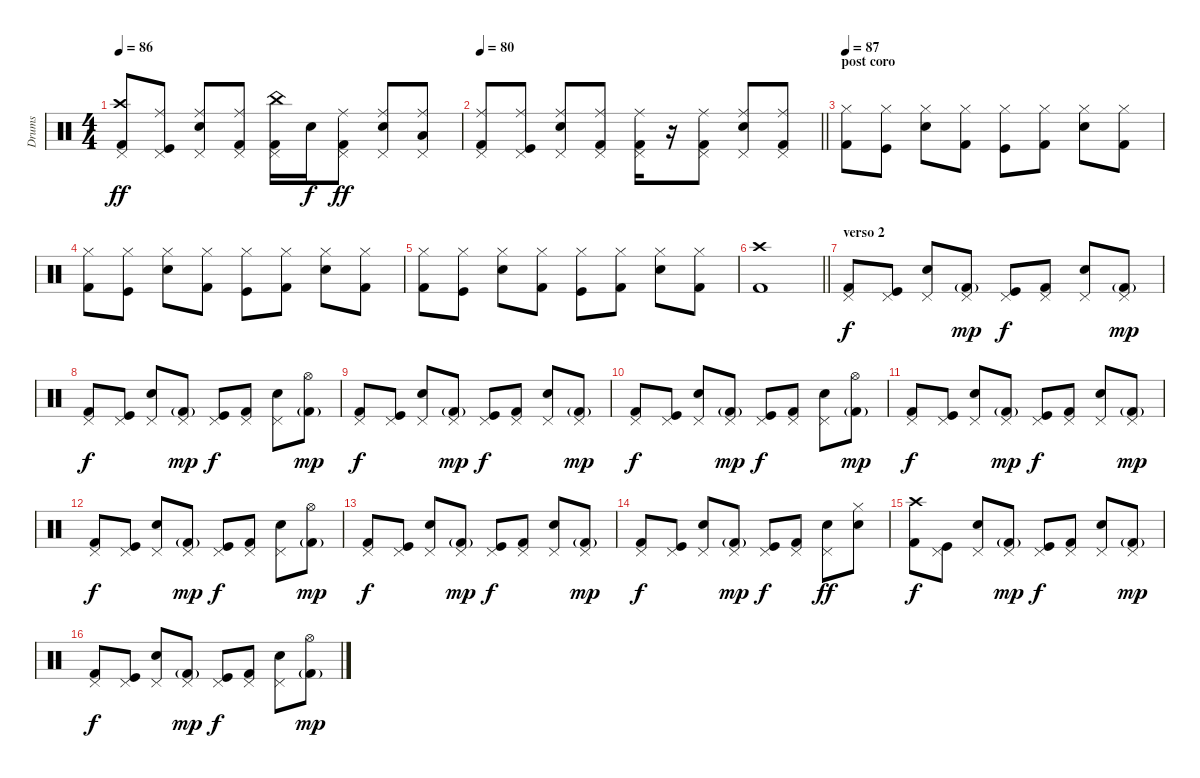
\track ("Drums" "Drums") {instrument percussion}
\staff {score}
\articulation defaults
\ts (4 4)
\tempo 86
\clef neutral
\ks c
("Kick (hit) 2" "Crash high (hit)" "Pedal Hi-Hat (hit)").8{dy ff} ("Kick (hit)" "Ride (middle)" "Pedal Hi-Hat (hit)").8 ("Snare (hit) 2" "Ride (middle)" "Pedal Hi-Hat (hit)").8 ("Kick (hit) 2" "Ride (middle)" "Pedal Hi-Hat (hit)").8 ("Kick (hit) 2" "China (hit)" "Pedal Hi-Hat (hit)").16 "Snare (hit) 2".16{dy f} ("Kick (hit) 2" "Ride (middle)" "Pedal Hi-Hat (hit)").8{dy ff} ("Snare (hit) 2" "Ride (middle)" "Pedal Hi-Hat (hit)").8 ("Low Tom (hit)" "Ride (middle)" "Pedal Hi-Hat (hit)").8 |
\tempo 80
\barLineRight lightlight
("Kick (hit) 2" "Ride (middle)" "Pedal Hi-Hat (hit)").8 ("Kick (hit)" "Ride (middle)" "Pedal Hi-Hat (hit)").8 ("Snare (hit) 2" "Ride (middle)" "Pedal Hi-Hat (hit)").8 ("Kick (hit) 2" "Ride (middle)" "Pedal Hi-Hat (hit)").8 ("Kick (hit) 2" "Ride (middle)" "Pedal Hi-Hat (hit)").16 r.16 ("Kick (hit) 2" "Ride (middle)" "Pedal Hi-Hat (hit)").8 ("Snare (hit) 2" "Ride (middle)" "Pedal Hi-Hat (hit)").8 ("Kick (hit) 2" "Ride (middle)" "Pedal Hi-Hat (hit)").8 |
\section ("" "post coro")
\tempo 87
("Kick (hit) 2" "Hi-Hat (closed)").8 ("Kick (hit)" "Hi-Hat (closed)").8 ("Snare (hit) 2" "Hi-Hat (closed)").8 ("Kick (hit) 2" "Hi-Hat (closed)").8 ("Kick (hit)" "Hi-Hat (closed)").8 ("Kick (hit) 2" "Hi-Hat (closed)").8 ("Snare (hit) 2" "Hi-Hat (closed)").8 ("Kick (hit) 2" "Hi-Hat (closed)").8 |
("Kick (hit) 2" "Hi-Hat (closed)").8 ("Kick (hit)" "Hi-Hat (closed)").8 ("Snare (hit) 2" "Hi-Hat (closed)").8 ("Kick (hit) 2" "Hi-Hat (closed)").8 ("Kick (hit)" "Hi-Hat (closed)").8 ("Kick (hit) 2" "Hi-Hat (closed)").8 ("Snare (hit) 2" "Hi-Hat (closed)").8 ("Kick (hit) 2" "Hi-Hat (closed)").8 |
("Kick (hit) 2" "Hi-Hat (closed)").8 ("Kick (hit)" "Hi-Hat (closed)").8 ("Snare (hit) 2" "Hi-Hat (closed)").8 ("Kick (hit) 2" "Hi-Hat (closed)").8 ("Kick (hit)" "Hi-Hat (closed)").8 ("Kick (hit) 2" "Hi-Hat (closed)").8 ("Snare (hit) 2" "Hi-Hat (closed)").8 ("Kick (hit) 2" "Hi-Hat (closed)").8 |
\barLineRight lightlight
("Kick (hit) 2" "Crash high (hit)").1 |
\section ("" "verso 2")
("Kick (hit) 2" "Pedal Hi-Hat (hit)").8{dy f} ("Kick (hit)" "Pedal Hi-Hat (hit)").8 ("Snare (hit) 2" "Pedal Hi-Hat (hit)").8 ("Kick (hit) 2"{g} "Pedal Hi-Hat (hit)").8{dy mp} ("Kick (hit)" "Pedal Hi-Hat (hit)").8{dy f} ("Kick (hit) 2" "Pedal Hi-Hat (hit)").8 ("Snare (hit) 2" "Pedal Hi-Hat (hit)").8 ("Kick (hit) 2"{g} "Pedal Hi-Hat (hit)").8{dy mp} |
("Kick (hit) 2" "Pedal Hi-Hat (hit)").8{dy f} ("Kick (hit)" "Pedal Hi-Hat (hit)").8 ("Snare (hit) 2" "Pedal Hi-Hat (hit)").8 ("Kick (hit) 2"{g} "Pedal Hi-Hat (hit)").8{dy mp} ("Kick (hit)" "Pedal Hi-Hat (hit)").8{dy f} ("Kick (hit) 2" "Pedal Hi-Hat (hit)").8 ("Snare (hit) 2" "Pedal Hi-Hat (hit)").8 ("Kick (hit) 2"{g} "Hi-Hat (open)").8{dy mp} |
("Kick (hit) 2" "Pedal Hi-Hat (hit)").8{dy f} ("Kick (hit)" "Pedal Hi-Hat (hit)").8 ("Snare (hit) 2" "Pedal Hi-Hat (hit)").8 ("Kick (hit) 2"{g} "Pedal Hi-Hat (hit)").8{dy mp} ("Kick (hit)" "Pedal Hi-Hat (hit)").8{dy f} ("Kick (hit) 2" "Pedal Hi-Hat (hit)").8 ("Snare (hit) 2" "Pedal Hi-Hat (hit)").8 ("Kick (hit) 2"{g} "Pedal Hi-Hat (hit)").8{dy mp} |
("Kick (hit) 2" "Pedal Hi-Hat (hit)").8{dy f} ("Kick (hit)" "Pedal Hi-Hat (hit)").8 ("Snare (hit) 2" "Pedal Hi-Hat (hit)").8 ("Kick (hit) 2"{g} "Pedal Hi-Hat (hit)").8{dy mp} ("Kick (hit)" "Pedal Hi-Hat (hit)").8{dy f} ("Kick (hit) 2" "Pedal Hi-Hat (hit)").8 ("Snare (hit) 2" "Pedal Hi-Hat (hit)").8 ("Kick (hit) 2"{g} "Hi-Hat (open)").8{dy mp} |
("Kick (hit) 2" "Pedal Hi-Hat (hit)").8{dy f} ("Kick (hit)" "Pedal Hi-Hat (hit)").8 ("Snare (hit) 2" "Pedal Hi-Hat (hit)").8 ("Kick (hit) 2"{g} "Pedal Hi-Hat (hit)").8{dy mp} ("Kick (hit)" "Pedal Hi-Hat (hit)").8{dy f} ("Kick (hit) 2" "Pedal Hi-Hat (hit)").8 ("Snare (hit) 2" "Pedal Hi-Hat (hit)").8 ("Kick (hit) 2"{g} "Pedal Hi-Hat (hit)").8{dy mp} |
("Kick (hit) 2" "Pedal Hi-Hat (hit)").8{dy f} ("Kick (hit)" "Pedal Hi-Hat (hit)").8 ("Snare (hit) 2" "Pedal Hi-Hat (hit)").8 ("Kick (hit) 2"{g} "Pedal Hi-Hat (hit)").8{dy mp} ("Kick (hit)" "Pedal Hi-Hat (hit)").8{dy f} ("Kick (hit) 2" "Pedal Hi-Hat (hit)").8 ("Snare (hit) 2" "Pedal Hi-Hat (hit)").8 ("Kick (hit) 2"{g} "Hi-Hat (open)").8{dy mp} |
("Kick (hit) 2" "Pedal Hi-Hat (hit)").8{dy f} ("Kick (hit)" "Pedal Hi-Hat (hit)").8 ("Snare (hit) 2" "Pedal Hi-Hat (hit)").8 ("Kick (hit) 2"{g} "Pedal Hi-Hat (hit)").8{dy mp} ("Kick (hit)" "Pedal Hi-Hat (hit)").8{dy f} ("Kick (hit) 2" "Pedal Hi-Hat (hit)").8 ("Snare (hit) 2" "Pedal Hi-Hat (hit)").8 ("Kick (hit) 2"{g} "Pedal Hi-Hat (hit)").8{dy mp} |
("Kick (hit) 2" "Pedal Hi-Hat (hit)").8{dy f} ("Kick (hit)" "Pedal Hi-Hat (hit)").8 ("Snare (hit) 2" "Pedal Hi-Hat (hit)").8 ("Kick (hit) 2"{g} "Pedal Hi-Hat (hit)").8{dy mp} ("Kick (hit)" "Pedal Hi-Hat (hit)").8{dy f} ("Kick (hit) 2" "Pedal Hi-Hat (hit)").8 ("Snare (hit) 2" "Pedal Hi-Hat (hit)").8{dy ff} ("Snare (hit) 2" "Hi-Hat (closed)").8 |
("Kick (hit) 2" "Crash high (hit)").8{dy f} ("Kick (hit)" "Pedal Hi-Hat (hit)").8 ("Snare (hit) 2" "Pedal Hi-Hat (hit)").8 ("Kick (hit) 2"{g} "Pedal Hi-Hat (hit)").8{dy mp} ("Kick (hit)" "Pedal Hi-Hat (hit)").8{dy f} ("Kick (hit) 2" "Pedal Hi-Hat (hit)").8 ("Snare (hit) 2" "Pedal Hi-Hat (hit)").8 ("Kick (hit) 2"{g} "Pedal Hi-Hat (hit)").8{dy mp} |
("Kick (hit) 2" "Pedal Hi-Hat (hit)").8{dy f} ("Kick (hit)" "Pedal Hi-Hat (hit)").8 ("Snare (hit) 2" "Pedal Hi-Hat (hit)").8 ("Kick (hit) 2"{g} "Pedal Hi-Hat (hit)").8{dy mp} ("Kick (hit)" "Pedal Hi-Hat (hit)").8{dy f} ("Kick (hit) 2" "Pedal Hi-Hat (hit)").8 ("Snare (hit) 2" "Pedal Hi-Hat (hit)").8 ("Kick (hit) 2"{g} "Hi-Hat (open)").8{dy mp}
